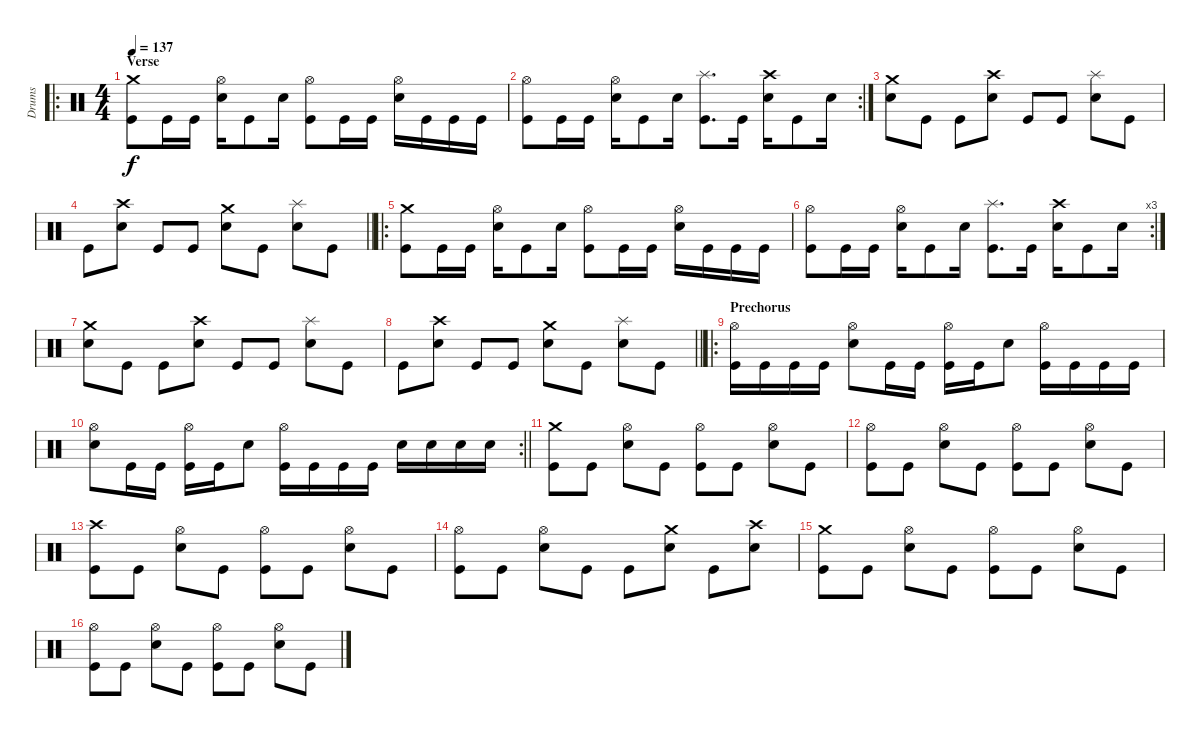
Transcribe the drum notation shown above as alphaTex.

\track ("Drums" "Drums") {instrument percussion}
\staff {score}
\articulation defaults
\ro
\ts (4 4)
\section ("" "Verse")
\tempo 137
\clef neutral
\ks c
("Kick (hit)" "Crash medium (hit)").8{dy f} "Kick (hit)".16 "Kick (hit)".16 ("Snare (hit) 2" "Hi-Hat (open)").16 "Kick (hit)".8 "Snare (hit) 2".16 ("Kick (hit)" "Hi-Hat (open)").8 "Kick (hit)".16 "Kick (hit)".16 ("Snare (hit) 2" "Hi-Hat (open)").16 "Kick (hit)".16 "Kick (hit)".16 "Kick (hit)".16 |
\rc 2
("Kick (hit)" "Hi-Hat (open)").8 "Kick (hit)".16 "Kick (hit)".16 ("Snare (hit) 2" "Hi-Hat (open)").16 "Kick (hit)".8 "Snare (hit) 2".16 ("Kick (hit)" "Splash (hit)").8{d} "Kick (hit)".16 ("Snare (hit) 2" "Crash high (hit)").16 "Kick (hit)".8 "Snare (hit) 2".16 |
("Snare (hit) 2" "Crash medium (hit)").8 "Kick (hit)".8 "Kick (hit)".8 ("Snare (hit) 2" "Crash high (hit)").8 "Kick (hit)".8 "Kick (hit)".8 ("Snare (hit) 2" "Splash (hit)").8 "Kick (hit)".8 |
\barLineRight lightlight "Kick (hit)".8
("Snare (hit) 2" "Crash high (hit)").8 "Kick (hit)".8 "Kick (hit)".8 ("Snare (hit) 2" "Crash medium (hit)").8 "Kick (hit)".8 ("Snare (hit) 2" "Splash (hit)").8 "Kick (hit)".8 |
\ro
("Kick (hit)" "Crash medium (hit)").8 "Kick (hit)".16 "Kick (hit)".16 ("Snare (hit) 2" "Hi-Hat (open)").16 "Kick (hit)".8 "Snare (hit) 2".16 ("Kick (hit)" "Hi-Hat (open)").8 "Kick (hit)".16 "Kick (hit)".16 ("Snare (hit) 2" "Hi-Hat (open)").16 "Kick (hit)".16 "Kick (hit)".16 "Kick (hit)".16 |
\rc 3
("Kick (hit)" "Hi-Hat (open)").8 "Kick (hit)".16 "Kick (hit)".16 ("Snare (hit) 2" "Hi-Hat (open)").16 "Kick (hit)".8 "Snare (hit) 2".16 ("Kick (hit)" "Splash (hit)").8{d} "Kick (hit)".16 ("Snare (hit) 2" "Crash high (hit)").16 "Kick (hit)".8 "Snare (hit) 2".16 |
("Snare (hit) 2" "Crash medium (hit)").8 "Kick (hit)".8 "Kick (hit)".8 ("Snare (hit) 2" "Crash high (hit)").8 "Kick (hit)".8 "Kick (hit)".8 ("Snare (hit) 2" "Splash (hit)").8 "Kick (hit)".8 |
\barLineRight lightlight "Kick (hit)".8
("Snare (hit) 2" "Crash high (hit)").8 "Kick (hit)".8 "Kick (hit)".8 ("Snare (hit) 2" "Crash medium (hit)").8 "Kick (hit)".8 ("Snare (hit) 2" "Splash (hit)").8 "Kick (hit)".8 |
\ro
\section ("" "Prechorus")
("Kick (hit)" "Hi-Hat (open)").16 "Kick (hit)".16 "Kick (hit)".16 "Kick (hit)".16 ("Snare (hit) 2" "Hi-Hat (open)").8 "Kick (hit)".16 "Kick (hit)".16 ("Kick (hit)" "Hi-Hat (open)").16 "Kick (hit)".16 "Snare (hit) 2".8 ("Kick (hit)" "Hi-Hat (open)").16 "Kick (hit)".16 "Kick (hit)".16 "Kick (hit)".16 |
\rc 2
\barLineRight lightlight
("Snare (hit) 2" "Hi-Hat (open)").8 "Kick (hit)".16 "Kick (hit)".16 ("Kick (hit)" "Hi-Hat (open)").16 "Kick (hit)".16 "Snare (hit) 2".8 ("Kick (hit)" "Hi-Hat (open)").16 "Kick (hit)".16 "Kick (hit)".16 "Kick (hit)".16 "Snare (hit) 2".16 "Snare (hit) 2".16 "Snare (hit) 2".16 "Snare (hit) 2".16 |
("Kick (hit)" "Crash medium (hit)").8 "Kick (hit)".8 ("Snare (hit) 2" "Hi-Hat (open)").8 "Kick (hit)".8 ("Kick (hit)" "Hi-Hat (open)").8 "Kick (hit)".8 ("Snare (hit) 2" "Hi-Hat (open)").8 "Kick (hit)".8 |
("Kick (hit)" "Hi-Hat (open)").8 "Kick (hit)".8 ("Snare (hit) 2" "Hi-Hat (open)").8 "Kick (hit)".8 ("Kick (hit)" "Hi-Hat (open)").8 "Kick (hit)".8 ("Snare (hit) 2" "Hi-Hat (open)").8 "Kick (hit)".8 |
("Kick (hit)" "Crash high (hit)").8 "Kick (hit)".8 ("Snare (hit) 2" "Hi-Hat (open)").8 "Kick (hit)".8 ("Kick (hit)" "Hi-Hat (open)").8 "Kick (hit)".8 ("Snare (hit) 2" "Hi-Hat (open)").8 "Kick (hit)".8 |
("Kick (hit)" "Hi-Hat (open)").8 "Kick (hit)".8 ("Snare (hit) 2" "Hi-Hat (open)").8 "Kick (hit)".8 "Kick (hit)".8 ("Snare (hit) 2" "Crash medium (hit)").8 "Kick (hit)".8 ("Snare (hit) 2" "Crash high (hit)").8 |
("Kick (hit)" "Crash medium (hit)").8 "Kick (hit)".8 ("Snare (hit) 2" "Hi-Hat (open)").8 "Kick (hit)".8 ("Kick (hit)" "Hi-Hat (open)").8 "Kick (hit)".8 ("Snare (hit) 2" "Hi-Hat (open)").8 "Kick (hit)".8 |
("Kick (hit)" "Hi-Hat (open)").8 "Kick (hit)".8 ("Snare (hit) 2" "Hi-Hat (open)").8 "Kick (hit)".8 ("Kick (hit)" "Hi-Hat (open)").8 "Kick (hit)".8 ("Snare (hit) 2" "Hi-Hat (open)").8 "Kick (hit)".8
